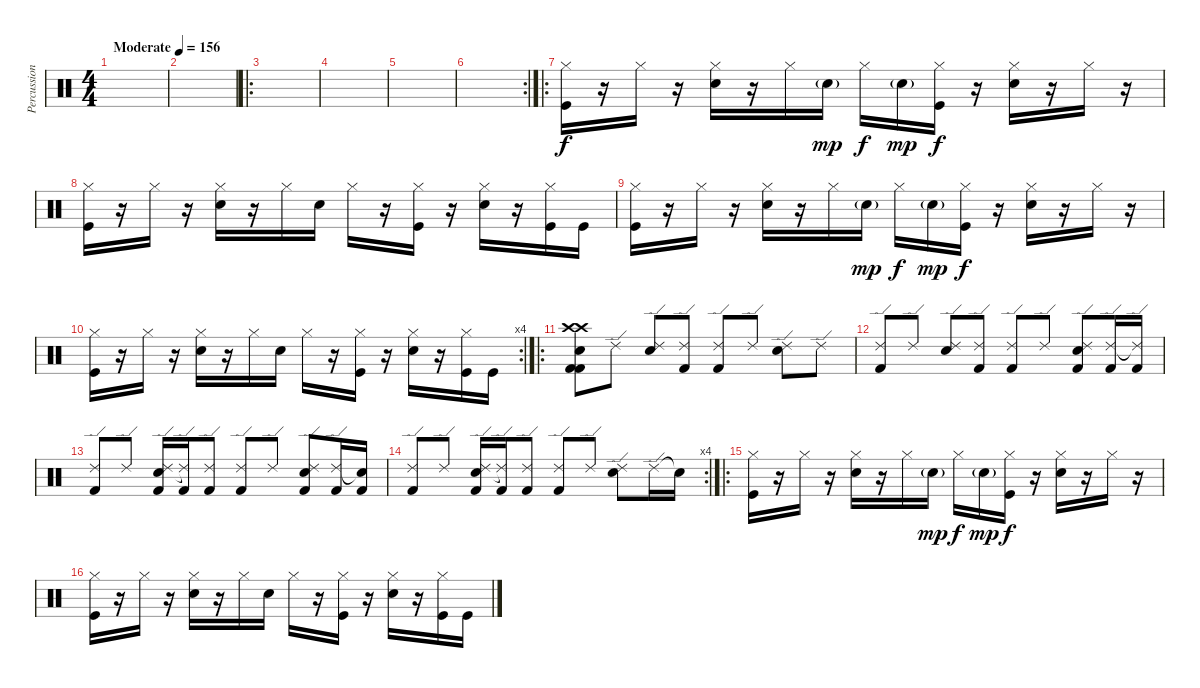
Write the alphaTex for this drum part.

\track ("Percussion" "Percussion") {instrument percussion}
\staff {score}
\articulation defaults
\ts (4 4)
\tempo (156 "Moderate")
\clef neutral
\ks c
|
|
\ro
|
|
|
\rc 2
|
\ro
("Hi-Hat (closed)" "Kick (hit)").16 r.16 "Hi-Hat (closed)".16 r.16 ("Hi-Hat (closed)" "Hand Clap (hit)").16 r.16 "Hi-Hat (closed)".16 "Hand Clap (hit)"{g}.16{dy mp} "Hi-Hat (closed)".16{dy f} "Hand Clap (hit)"{g}.16{dy mp} ("Hi-Hat (closed)" "Kick (hit)").16{dy f} r.16 ("Hi-Hat (closed)" "Hand Clap (hit)").16 r.16 "Hi-Hat (closed)".16 r.16 |
("Hi-Hat (closed)" "Kick (hit)").16 r.16 "Hi-Hat (closed)".16 r.16 ("Hi-Hat (closed)" "Hand Clap (hit)").16 r.16 "Hi-Hat (closed)".16 "Hand Clap (hit)".16 "Hi-Hat (closed)".16 r.16 ("Hi-Hat (closed)" "Kick (hit)").16 r.16 ("Hi-Hat (closed)" "Hand Clap (hit)").16 r.16 ("Hi-Hat (closed)" "Kick (hit)").16 "Kick (hit)".16 |
("Hi-Hat (closed)" "Kick (hit)").16 r.16 "Hi-Hat (closed)".16 r.16 ("Hi-Hat (closed)" "Hand Clap (hit)").16 r.16 "Hi-Hat (closed)".16 "Hand Clap (hit)"{g}.16{dy mp} "Hi-Hat (closed)".16{dy f} "Hand Clap (hit)"{g}.16{dy mp} ("Hi-Hat (closed)" "Kick (hit)").16{dy f} r.16 ("Hi-Hat (closed)" "Hand Clap (hit)").16 r.16 "Hi-Hat (closed)".16 r.16 |
\rc 4
("Hi-Hat (closed)" "Kick (hit)").16 r.16 "Hi-Hat (closed)".16 r.16 ("Hi-Hat (closed)" "Hand Clap (hit)").16 r.16 "Hi-Hat (closed)".16 "Hand Clap (hit)".16 "Hi-Hat (closed)".16 r.16 ("Hi-Hat (closed)" "Kick (hit)").16 r.16 ("Hi-Hat (closed)" "Hand Clap (hit)").16 r.16 ("Hi-Hat (closed)" "Kick (hit)").16 "Kick (hit)".16 |
\ro
("Crash high (hit)" "Crash high (hit)" "Kick (hit) 2" "Kick (hit) 2" "Snare (hit) 2").8 "Ride (edge) 2".8 ("Ride (edge) 2" "Electric Snare (hit)").8 ("Ride (edge) 2" "Kick (hit) 2").8 ("Ride (edge) 2" "Kick (hit) 2").8 "Ride (edge) 2".8 ("Ride (edge) 2" "Electric Snare (hit)").8 "Ride (edge) 2".8 |
("Ride (edge) 2" "Kick (hit) 2").8 "Ride (edge) 2".8 ("Ride (edge) 2" "Electric Snare (hit)").8 ("Ride (edge) 2" "Kick (hit) 2").8 ("Ride (edge) 2" "Kick (hit) 2").8 "Ride (edge) 2".8 ("Electric Snare (hit)" "Ride (edge) 2" "Kick (hit) 2").8 ("Ride (edge) 2" "Kick (hit) 2").16 ("Ride (edge) 2"{t} "Kick (hit) 2").16 |
("Ride (edge) 2" "Kick (hit) 2").8 "Ride (edge) 2".8 ("Electric Snare (hit)" "Ride (edge) 2" "Kick (hit) 2").16 ("Ride (edge) 2"{t} "Kick (hit) 2").16 ("Ride (edge) 2" "Kick (hit) 2").8 ("Ride (edge) 2" "Kick (hit) 2").8 "Ride (edge) 2".8 ("Electric Snare (hit)" "Ride (edge) 2" "Kick (hit) 2").8 ("Ride (edge) 2" "Kick (hit) 2").16 ("Snare (hit)"{t} "Kick (hit) 2").16 |
\rc 4
("Ride (edge) 2" "Kick (hit) 2").8 "Ride (edge) 2".8 ("Electric Snare (hit)" "Ride (edge) 2" "Kick (hit) 2").16 ("Ride (edge) 2"{t} "Kick (hit) 2").16 ("Ride (edge) 2" "Kick (hit) 2").8 ("Ride (edge) 2" "Kick (hit) 2").8 "Ride (edge) 2".8 ("Electric Snare (hit)" "Ride (edge) 2").8 "Ride (edge) 2".16 "Snare (hit)"{t}.16 |
\ro
("Hi-Hat (closed)" "Kick (hit)").16 r.16 "Hi-Hat (closed)".16 r.16 ("Hi-Hat (closed)" "Hand Clap (hit)").16 r.16 "Hi-Hat (closed)".16 "Hand Clap (hit)"{g}.16{dy mp} "Hi-Hat (closed)".16{dy f} "Hand Clap (hit)"{g}.16{dy mp} ("Hi-Hat (closed)" "Kick (hit)").16{dy f} r.16 ("Hi-Hat (closed)" "Hand Clap (hit)").16 r.16 "Hi-Hat (closed)".16 r.16 |
("Hi-Hat (closed)" "Kick (hit)").16 r.16 "Hi-Hat (closed)".16 r.16 ("Hi-Hat (closed)" "Hand Clap (hit)").16 r.16 "Hi-Hat (closed)".16 "Hand Clap (hit)".16 "Hi-Hat (closed)".16 r.16 ("Hi-Hat (closed)" "Kick (hit)").16 r.16 ("Hi-Hat (closed)" "Hand Clap (hit)").16 r.16 ("Hi-Hat (closed)" "Kick (hit)").16 "Kick (hit)".16
